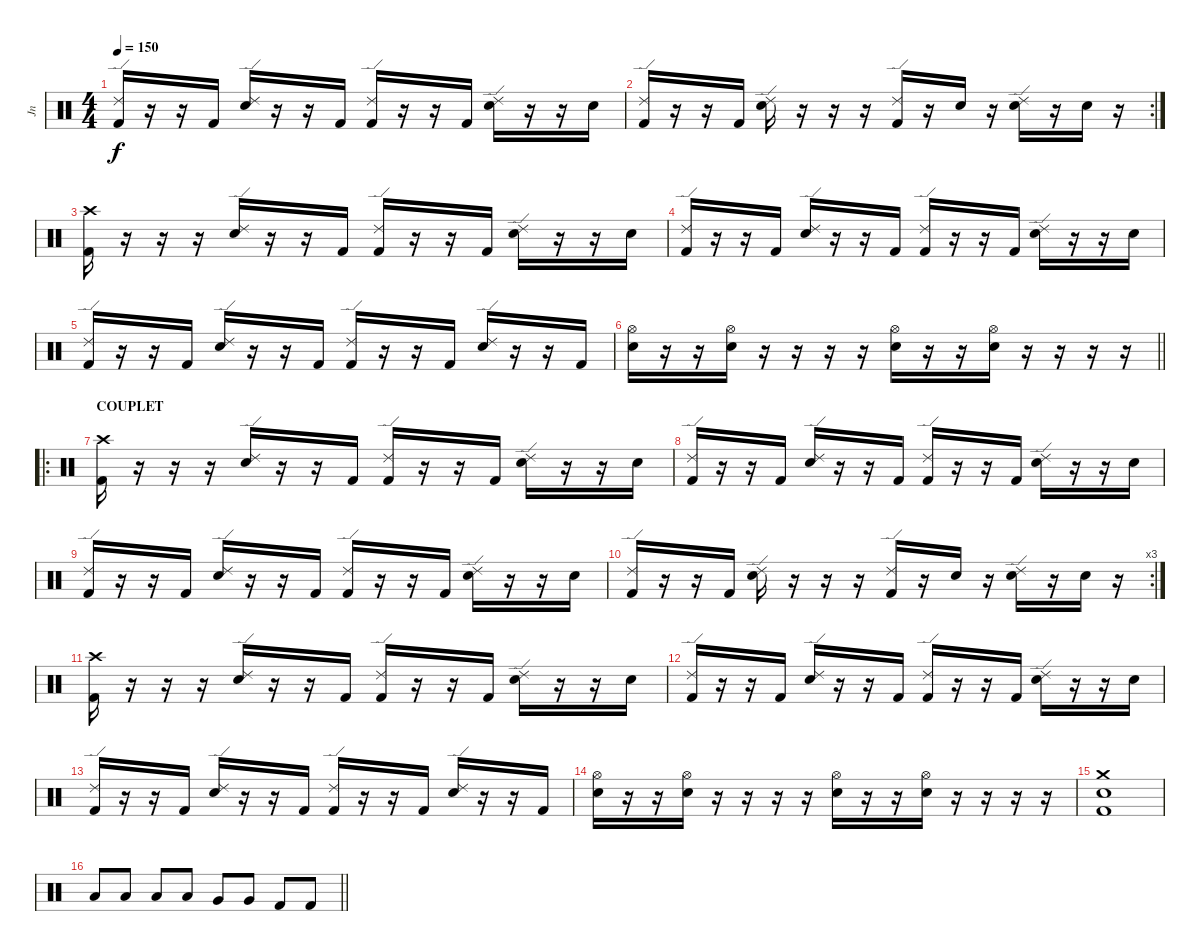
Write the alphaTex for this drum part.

\track ("Jn" "Jn") {instrument percussion}
\staff {score}
\articulation defaults
\ts (4 4)
\tempo 150
\clef neutral
\ks c
("Ride (edge) 2" "Kick (hit) 2").16{dy f} r.16 r.16 "Kick (hit) 2".16 ("Ride (edge) 2" "Electric Snare (hit)").16 r.16 r.16 "Kick (hit) 2".16 ("Ride (edge) 2" "Kick (hit) 2").16 r.16 r.16 "Kick (hit) 2".16 ("Ride (edge) 2" "Electric Snare (hit)").16 r.16 r.16 "Electric Snare (hit)".16 |
\rc 2
("Ride (edge) 2" "Kick (hit) 2").16 r.16 r.16 "Kick (hit) 2".16 ("Ride (edge) 2" "Electric Snare (hit)").16 r.16 r.16 r.16 ("Ride (edge) 2" "Kick (hit) 2").16 r.16 "Electric Snare (hit)".16 r.16 ("Ride (edge) 2" "Electric Snare (hit)").16 r.16 "Electric Snare (hit)".16 r.16 |
("Crash high (hit)" "Kick (hit) 2").16 r.16 r.16 r.16 ("Ride (edge) 2" "Electric Snare (hit)").16 r.16 r.16 "Kick (hit) 2".16 ("Ride (edge) 2" "Kick (hit) 2").16 r.16 r.16 "Kick (hit) 2".16 ("Ride (edge) 2" "Electric Snare (hit)").16 r.16 r.16 "Electric Snare (hit)".16 |
("Ride (edge) 2" "Kick (hit) 2").16 r.16 r.16 "Kick (hit) 2".16 ("Ride (edge) 2" "Electric Snare (hit)").16 r.16 r.16 "Kick (hit) 2".16 ("Ride (edge) 2" "Kick (hit) 2").16 r.16 r.16 "Kick (hit) 2".16 ("Ride (edge) 2" "Electric Snare (hit)").16 r.16 r.16 "Electric Snare (hit)".16 |
("Ride (edge) 2" "Kick (hit) 2").16 r.16 r.16 "Kick (hit) 2".16 ("Ride (edge) 2" "Electric Snare (hit)").16 r.16 r.16 "Kick (hit) 2".16 ("Ride (edge) 2" "Kick (hit) 2").16 r.16 r.16 "Kick (hit) 2".16 ("Ride (edge) 2" "Electric Snare (hit)").16 r.16 r.16 "Kick (hit) 2".16 |
\barLineRight lightlight
("Hi-Hat (open)" "Electric Snare (hit)").16 r.16 r.16 ("Hi-Hat (open)" "Electric Snare (hit)").16 r.16 r.16 r.16 r.16 ("Hi-Hat (open)" "Electric Snare (hit)").16 r.16 r.16 ("Hi-Hat (open)" "Electric Snare (hit)").16 r.16 r.16 r.16 r.16 |
\ro
\section ("" "COUPLET")
("Crash high (hit)" "Kick (hit) 2").16 r.16 r.16 r.16 ("Ride (edge) 2" "Electric Snare (hit)").16 r.16 r.16 "Kick (hit) 2".16 ("Ride (edge) 2" "Kick (hit) 2").16 r.16 r.16 "Kick (hit) 2".16 ("Ride (edge) 2" "Electric Snare (hit)").16 r.16 r.16 "Electric Snare (hit)".16 |
("Ride (edge) 2" "Kick (hit) 2").16 r.16 r.16 "Kick (hit) 2".16 ("Ride (edge) 2" "Electric Snare (hit)").16 r.16 r.16 "Kick (hit) 2".16 ("Ride (edge) 2" "Kick (hit) 2").16 r.16 r.16 "Kick (hit) 2".16 ("Ride (edge) 2" "Electric Snare (hit)").16 r.16 r.16 "Electric Snare (hit)".16 |
("Ride (edge) 2" "Kick (hit) 2").16 r.16 r.16 "Kick (hit) 2".16 ("Ride (edge) 2" "Electric Snare (hit)").16 r.16 r.16 "Kick (hit) 2".16 ("Ride (edge) 2" "Kick (hit) 2").16 r.16 r.16 "Kick (hit) 2".16 ("Ride (edge) 2" "Electric Snare (hit)").16 r.16 r.16 "Electric Snare (hit)".16 |
\rc 3
("Ride (edge) 2" "Kick (hit) 2").16 r.16 r.16 "Kick (hit) 2".16 ("Ride (edge) 2" "Electric Snare (hit)").16 r.16 r.16 r.16 ("Ride (edge) 2" "Kick (hit) 2").16 r.16 "Electric Snare (hit)".16 r.16 ("Ride (edge) 2" "Electric Snare (hit)").16 r.16 "Electric Snare (hit)".16 r.16 |
("Crash high (hit)" "Kick (hit) 2").16 r.16 r.16 r.16 ("Ride (edge) 2" "Electric Snare (hit)").16 r.16 r.16 "Kick (hit) 2".16 ("Ride (edge) 2" "Kick (hit) 2").16 r.16 r.16 "Kick (hit) 2".16 ("Ride (edge) 2" "Electric Snare (hit)").16 r.16 r.16 "Electric Snare (hit)".16 |
("Ride (edge) 2" "Kick (hit) 2").16 r.16 r.16 "Kick (hit) 2".16 ("Ride (edge) 2" "Electric Snare (hit)").16 r.16 r.16 "Kick (hit) 2".16 ("Ride (edge) 2" "Kick (hit) 2").16 r.16 r.16 "Kick (hit) 2".16 ("Ride (edge) 2" "Electric Snare (hit)").16 r.16 r.16 "Electric Snare (hit)".16 |
("Ride (edge) 2" "Kick (hit) 2").16 r.16 r.16 "Kick (hit) 2".16 ("Ride (edge) 2" "Electric Snare (hit)").16 r.16 r.16 "Kick (hit) 2".16 ("Ride (edge) 2" "Kick (hit) 2").16 r.16 r.16 "Kick (hit) 2".16 ("Ride (edge) 2" "Electric Snare (hit)").16 r.16 r.16 "Kick (hit) 2".16 |
("Hi-Hat (open)" "Electric Snare (hit)").16 r.16 r.16 ("Hi-Hat (open)" "Electric Snare (hit)").16 r.16 r.16 r.16 r.16 ("Hi-Hat (open)" "Electric Snare (hit)").16 r.16 r.16 ("Hi-Hat (open)" "Electric Snare (hit)").16 r.16 r.16 r.16 r.16 |
("Electric Snare (hit)" "Kick (hit) 2" "Crash medium (hit)").1 |
\barLineRight lightlight "Low Tom (hit)".8 "Low Tom (hit)".8 "Low Tom (hit)".8 "Low Tom (hit)".8 "Very Low Tom (hit)".8 "Very Low Tom (hit)".8 "Kick (hit) 2".8 "Kick (hit) 2".8
